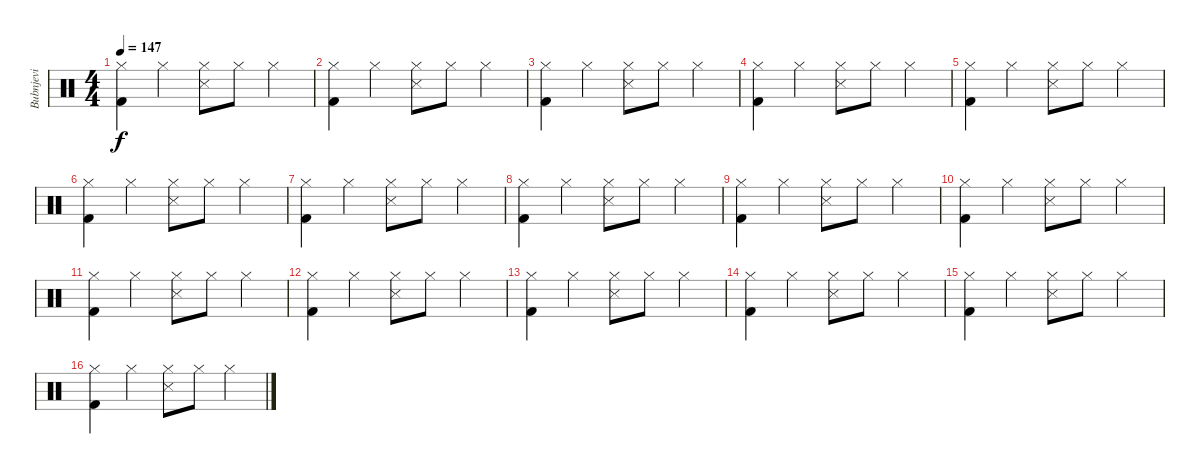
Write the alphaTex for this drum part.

\track ("Bubnjevi" "Bubnjevi") {instrument percussion}
\staff {score}
\articulation defaults
\ts (4 4)
\tempo 147
\clef neutral
\ks c
("Hi-Hat (closed)" "Kick (hit) 2").4{dy f} "Hi-Hat (closed)".4 ("Hi-Hat (closed)" "Snare (side stick) 3").8 "Hi-Hat (closed)".8 "Hi-Hat (closed)".4 |
("Hi-Hat (closed)" "Kick (hit) 2").4 "Hi-Hat (closed)".4 ("Hi-Hat (closed)" "Snare (side stick) 3").8 "Hi-Hat (closed)".8 "Hi-Hat (closed)".4 |
("Hi-Hat (closed)" "Kick (hit) 2").4 "Hi-Hat (closed)".4 ("Hi-Hat (closed)" "Snare (side stick) 3").8 "Hi-Hat (closed)".8 "Hi-Hat (closed)".4 |
("Hi-Hat (closed)" "Kick (hit) 2").4 "Hi-Hat (closed)".4 ("Hi-Hat (closed)" "Snare (side stick) 3").8 "Hi-Hat (closed)".8 "Hi-Hat (closed)".4 |
("Hi-Hat (closed)" "Kick (hit) 2").4 "Hi-Hat (closed)".4 ("Hi-Hat (closed)" "Snare (side stick) 3").8 "Hi-Hat (closed)".8 "Hi-Hat (closed)".4 |
("Hi-Hat (closed)" "Kick (hit) 2").4 "Hi-Hat (closed)".4 ("Hi-Hat (closed)" "Snare (side stick) 3").8 "Hi-Hat (closed)".8 "Hi-Hat (closed)".4 |
("Hi-Hat (closed)" "Kick (hit) 2").4 "Hi-Hat (closed)".4 ("Hi-Hat (closed)" "Snare (side stick) 3").8 "Hi-Hat (closed)".8 "Hi-Hat (closed)".4 |
("Hi-Hat (closed)" "Kick (hit) 2").4 "Hi-Hat (closed)".4 ("Hi-Hat (closed)" "Snare (side stick) 3").8 "Hi-Hat (closed)".8 "Hi-Hat (closed)".4 |
("Hi-Hat (closed)" "Kick (hit) 2").4 "Hi-Hat (closed)".4 ("Hi-Hat (closed)" "Snare (side stick) 3").8 "Hi-Hat (closed)".8 "Hi-Hat (closed)".4 |
("Hi-Hat (closed)" "Kick (hit) 2").4 "Hi-Hat (closed)".4 ("Hi-Hat (closed)" "Snare (side stick) 3").8 "Hi-Hat (closed)".8 "Hi-Hat (closed)".4 |
("Hi-Hat (closed)" "Kick (hit) 2").4 "Hi-Hat (closed)".4 ("Hi-Hat (closed)" "Snare (side stick) 3").8 "Hi-Hat (closed)".8 "Hi-Hat (closed)".4 |
("Hi-Hat (closed)" "Kick (hit) 2").4 "Hi-Hat (closed)".4 ("Hi-Hat (closed)" "Snare (side stick) 3").8 "Hi-Hat (closed)".8 "Hi-Hat (closed)".4 |
("Hi-Hat (closed)" "Kick (hit) 2").4 "Hi-Hat (closed)".4 ("Hi-Hat (closed)" "Snare (side stick) 3").8 "Hi-Hat (closed)".8 "Hi-Hat (closed)".4 |
("Hi-Hat (closed)" "Kick (hit) 2").4 "Hi-Hat (closed)".4 ("Hi-Hat (closed)" "Snare (side stick) 3").8 "Hi-Hat (closed)".8 "Hi-Hat (closed)".4 |
("Hi-Hat (closed)" "Kick (hit) 2").4 "Hi-Hat (closed)".4 ("Hi-Hat (closed)" "Snare (side stick) 3").8 "Hi-Hat (closed)".8 "Hi-Hat (closed)".4 |
("Hi-Hat (closed)" "Kick (hit) 2").4 "Hi-Hat (closed)".4 ("Hi-Hat (closed)" "Snare (side stick) 3").8 "Hi-Hat (closed)".8 "Hi-Hat (closed)".4
